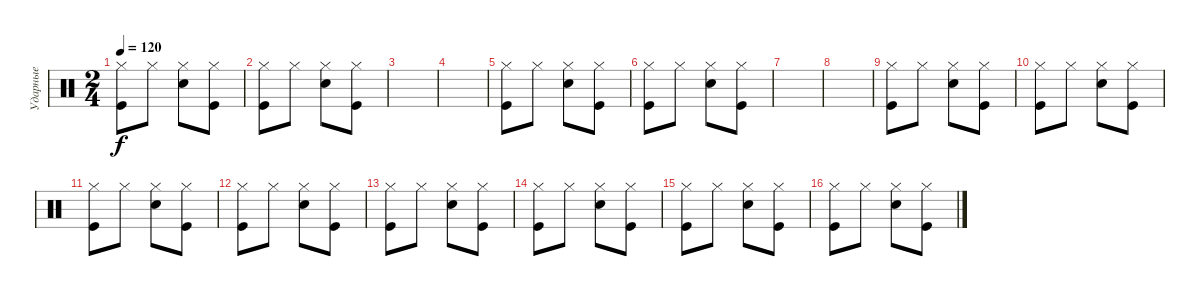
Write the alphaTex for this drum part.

\track ("Ударные" "Ударные") {instrument percussion}
\staff {score}
\articulation defaults
\ts (2 4)
\tempo 120
\clef neutral
\ks c
("Kick (hit)" "Hi-Hat (closed)").8{dy f} "Hi-Hat (closed)".8 ("Snare (hit) 2" "Hi-Hat (closed)").8 ("Kick (hit)" "Hi-Hat (closed)").8 |
("Kick (hit)" "Hi-Hat (closed)").8 "Hi-Hat (closed)".8 ("Snare (hit) 2" "Hi-Hat (closed)").8 ("Kick (hit)" "Hi-Hat (closed)").8 |
|
|
("Kick (hit)" "Hi-Hat (closed)").8 "Hi-Hat (closed)".8 ("Snare (hit) 2" "Hi-Hat (closed)").8 ("Kick (hit)" "Hi-Hat (closed)").8 |
("Kick (hit)" "Hi-Hat (closed)").8 "Hi-Hat (closed)".8 ("Snare (hit) 2" "Hi-Hat (closed)").8 ("Kick (hit)" "Hi-Hat (closed)").8 |
|
|
("Kick (hit)" "Hi-Hat (closed)").8 "Hi-Hat (closed)".8 ("Snare (hit) 2" "Hi-Hat (closed)").8 ("Kick (hit)" "Hi-Hat (closed)").8 |
("Kick (hit)" "Hi-Hat (closed)").8 "Hi-Hat (closed)".8 ("Snare (hit) 2" "Hi-Hat (closed)").8 ("Kick (hit)" "Hi-Hat (closed)").8 |
("Kick (hit)" "Hi-Hat (closed)").8 "Hi-Hat (closed)".8 ("Snare (hit) 2" "Hi-Hat (closed)").8 ("Kick (hit)" "Hi-Hat (closed)").8 |
("Kick (hit)" "Hi-Hat (closed)").8 "Hi-Hat (closed)".8 ("Snare (hit) 2" "Hi-Hat (closed)").8 ("Kick (hit)" "Hi-Hat (closed)").8 |
("Kick (hit)" "Hi-Hat (closed)").8 "Hi-Hat (closed)".8 ("Snare (hit) 2" "Hi-Hat (closed)").8 ("Kick (hit)" "Hi-Hat (closed)").8 |
("Kick (hit)" "Hi-Hat (closed)").8 "Hi-Hat (closed)".8 ("Snare (hit) 2" "Hi-Hat (closed)").8 ("Kick (hit)" "Hi-Hat (closed)").8 |
("Kick (hit)" "Hi-Hat (closed)").8 "Hi-Hat (closed)".8 ("Snare (hit) 2" "Hi-Hat (closed)").8 ("Kick (hit)" "Hi-Hat (closed)").8 |
("Kick (hit)" "Hi-Hat (closed)").8 "Hi-Hat (closed)".8 ("Snare (hit) 2" "Hi-Hat (closed)").8 ("Kick (hit)" "Hi-Hat (closed)").8
